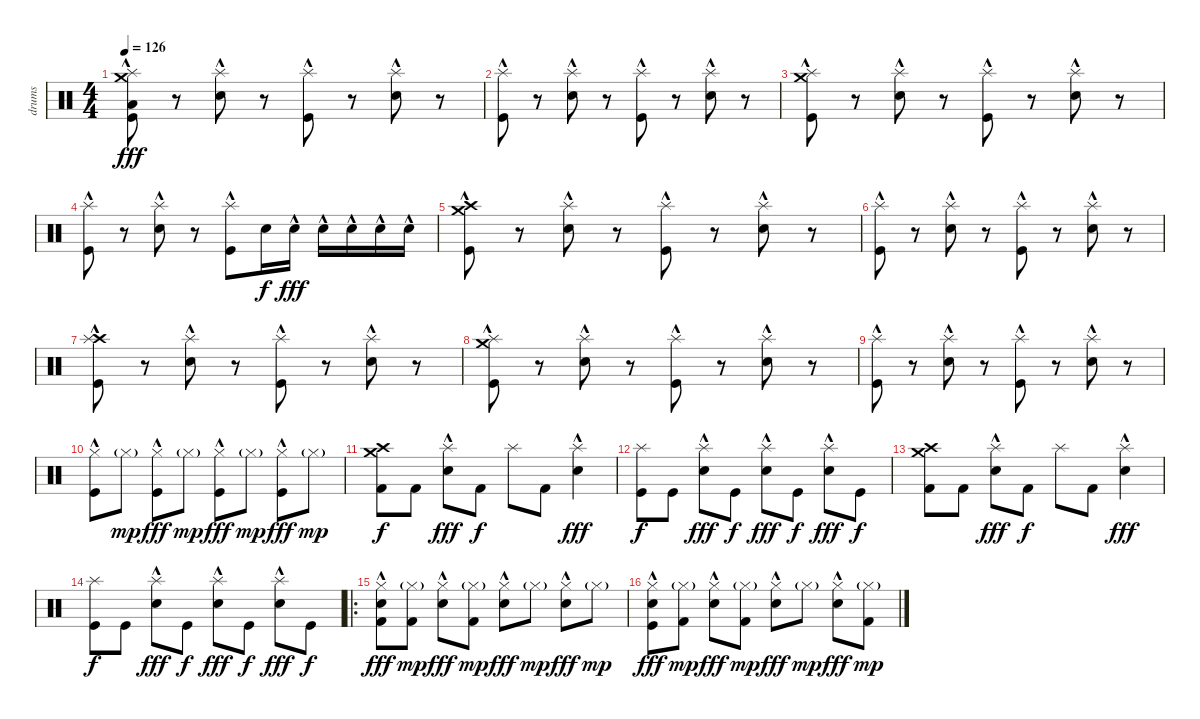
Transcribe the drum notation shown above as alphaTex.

\track ("drums" "drums") {instrument percussion}
\staff {score}
\articulation defaults
\ts (4 4)
\tempo 126
\clef neutral
\ks c
("Crash medium (hit)" "Splash (hit)" "Low Tom (hit)" "Kick (hit)"{hac}).8{dy fff} r.8 ("Splash (hit)" "Electric Snare (hit)"{hac}).8 r.8 ("Splash (hit)" "Kick (hit)"{hac}).8 r.8 ("Splash (hit)" "Electric Snare (hit)"{hac}).8 r.8 |
("Splash (hit)" "Kick (hit)"{hac}).8 r.8 ("Splash (hit)" "Electric Snare (hit)"{hac}).8 r.8 ("Splash (hit)" "Kick (hit)"{hac}).8 r.8 ("Splash (hit)" "Electric Snare (hit)"{hac}).8 r.8 |
("Crash medium (hit)" "Splash (hit)" "Kick (hit)"{hac}).8 r.8 ("Splash (hit)" "Electric Snare (hit)"{hac}).8 r.8 ("Splash (hit)" "Kick (hit)"{hac}).8 r.8 ("Splash (hit)" "Electric Snare (hit)"{hac}).8 r.8 |
("Splash (hit)" "Kick (hit)"{hac}).8 r.8 ("Splash (hit)" "Electric Snare (hit)"{hac}).8 r.8 ("Splash (hit)" "Kick (hit)"{hac}).8 "Electric Snare (hit)".16{dy f} "Electric Snare (hit)"{hac}.16{dy fff} "Electric Snare (hit)"{hac}.16 "Electric Snare (hit)"{hac}.16 "Electric Snare (hit)"{hac}.16 "Electric Snare (hit)"{hac}.16 |
("Crash medium (hit)"{hac} "Crash high (hit)"{hac} "Kick (hit)").8 r.8 ("Splash (hit)" "Electric Snare (hit)"{hac}).8 r.8 ("Splash (hit)" "Kick (hit)"{hac}).8 r.8 ("Splash (hit)" "Electric Snare (hit)"{hac}).8 r.8 |
("Splash (hit)" "Kick (hit)"{hac}).8 r.8 ("Splash (hit)" "Electric Snare (hit)"{hac}).8 r.8 ("Splash (hit)" "Kick (hit)"{hac}).8 r.8 ("Splash (hit)" "Electric Snare (hit)"{hac}).8 r.8 |
("Crash high (hit)" "Splash (hit)" "Kick (hit)"{hac}).8 r.8 ("Splash (hit)" "Electric Snare (hit)"{hac}).8 r.8 ("Splash (hit)" "Kick (hit)"{hac}).8 r.8 ("Splash (hit)" "Electric Snare (hit)"{hac}).8 r.8 |
("Crash medium (hit)" "Splash (hit)" "Kick (hit)"{hac}).8 r.8 ("Splash (hit)" "Electric Snare (hit)"{hac}).8 r.8 ("Splash (hit)" "Kick (hit)"{hac}).8 r.8 ("Splash (hit)" "Electric Snare (hit)"{hac}).8 r.8 |
("Splash (hit)" "Kick (hit)"{hac}).8 r.8 ("Splash (hit)" "Electric Snare (hit)"{hac}).8 r.8 ("Splash (hit)" "Kick (hit)"{hac}).8 r.8 ("Splash (hit)" "Electric Snare (hit)"{hac}).8 r.8 |
("Hi-Hat (closed)" "Kick (hit)"{hac}).8 "Hi-Hat (closed)"{g}.8{dy mp} ("Hi-Hat (closed)" "Kick (hit)"{hac}).8{dy fff} "Hi-Hat (closed)"{g}.8{dy mp} ("Hi-Hat (closed)" "Kick (hit)"{hac}).8{dy fff} "Hi-Hat (closed)"{g}.8{dy mp} ("Hi-Hat (closed)" "Kick (hit)"{hac}).8{dy fff} "Hi-Hat (closed)"{g}.8{dy mp} |
("Crash high (hit)" "Crash medium (hit)" "Kick (hit) 2").8{dy f} "Kick (hit) 2".8 ("Electric Snare (hit)"{hac} "Splash (hit)").8{dy fff} "Kick (hit) 2".8{dy f} "Splash (hit)".8 "Kick (hit) 2".8 ("Electric Snare (hit)"{hac} "Splash (hit)").4{dy fff} |
("Splash (hit)" "Kick (hit)").8{dy f} "Kick (hit)".8 ("Electric Snare (hit)"{hac} "Splash (hit)").8{dy fff} "Kick (hit)".8{dy f} ("Electric Snare (hit)"{hac} "Splash (hit)").8{dy fff} "Kick (hit)".8{dy f} ("Electric Snare (hit)"{hac} "Splash (hit)").8{dy fff} "Kick (hit)".8{dy f} |
("Crash high (hit)" "Crash medium (hit)" "Kick (hit) 2").8 "Kick (hit) 2".8 ("Electric Snare (hit)"{hac} "Splash (hit)").8{dy fff} "Kick (hit) 2".8{dy f} "Splash (hit)".8 "Kick (hit) 2".8 ("Electric Snare (hit)"{hac} "Splash (hit)").4{dy fff} |
("Splash (hit)" "Kick (hit)").8{dy f} "Kick (hit)".8 ("Electric Snare (hit)"{hac} "Splash (hit)").8{dy fff} "Kick (hit)".8{dy f} ("Electric Snare (hit)"{hac} "Splash (hit)").8{dy fff} "Kick (hit)".8{dy f} ("Electric Snare (hit)"{hac} "Splash (hit)").8{dy fff} "Kick (hit)".8{dy f} |
\ro
("Hi-Hat (closed)" "Electric Snare (hit)"{hac} "Kick (hit) 2").8{dy fff} ("Hi-Hat (closed)"{g} "Kick (hit) 2").8{dy mp} ("Hi-Hat (closed)" "Electric Snare (hit)"{hac}).8{dy fff} ("Hi-Hat (closed)"{g} "Kick (hit) 2").8{dy mp} ("Hi-Hat (closed)" "Electric Snare (hit)"{hac}).8{dy fff} "Hi-Hat (closed)"{g}.8{dy mp} ("Hi-Hat (closed)" "Electric Snare (hit)"{hac}).8{dy fff} "Hi-Hat (closed)"{g}.8{dy mp} |
("Hi-Hat (closed)" "Electric Snare (hit)"{hac} "Kick (hit)").8{dy fff} ("Hi-Hat (closed)"{g} "Kick (hit) 2").8{dy mp} ("Hi-Hat (closed)" "Electric Snare (hit)"{hac}).8{dy fff} ("Hi-Hat (closed)"{g} "Kick (hit) 2").8{dy mp} ("Hi-Hat (closed)" "Electric Snare (hit)"{hac}).8{dy fff} "Hi-Hat (closed)"{g}.8{dy mp} ("Hi-Hat (closed)" "Electric Snare (hit)"{hac}).8{dy fff} ("Hi-Hat (closed)"{g} "Kick (hit) 2").8{dy mp}
